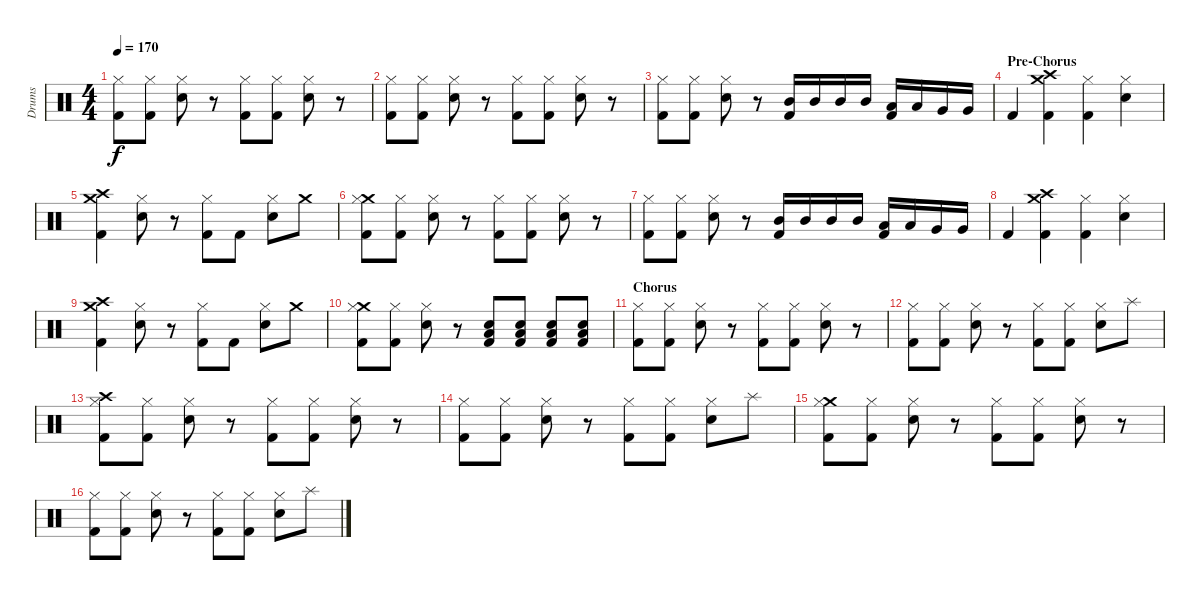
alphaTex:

\track ("Drums" "Drums") {instrument percussion}
\staff {score}
\articulation defaults
\ts (4 4)
\tempo 170
\clef neutral
\ks c
("Hi-Hat (closed)" "Kick (hit) 2").8{dy f} ("Hi-Hat (closed)" "Kick (hit) 2").8 ("Hi-Hat (closed)" "Snare (hit) 2").8 r.8 ("Hi-Hat (closed)" "Kick (hit) 2").8 ("Hi-Hat (closed)" "Kick (hit) 2").8 ("Hi-Hat (closed)" "Snare (hit) 2").8 r.8 |
("Hi-Hat (closed)" "Kick (hit) 2").8 ("Hi-Hat (closed)" "Kick (hit) 2").8 ("Hi-Hat (closed)" "Snare (hit) 2").8 r.8 ("Hi-Hat (closed)" "Kick (hit) 2").8 ("Hi-Hat (closed)" "Kick (hit) 2").8 ("Hi-Hat (closed)" "Snare (hit) 2").8 r.8 |
("Hi-Hat (closed)" "Kick (hit) 2").8 ("Hi-Hat (closed)" "Kick (hit) 2").8 ("Hi-Hat (closed)" "Snare (hit) 2").8 r.8 ("Mid Tom (hit)" "Kick (hit) 2").16 "Mid Tom (hit)".16 "Mid Tom (hit)".16 "Mid Tom (hit)".16 ("Low Tom (hit)" "Kick (hit) 2").16 "Low Tom (hit)".16 "Very Low Tom (hit)".16 "Very Low Tom (hit)".16 |
\section ("" "Pre-Chorus")
"Kick (hit) 2".4 ("Crash medium (hit)" "Crash high (hit)" "Kick (hit) 2").4 ("Hi-Hat (closed)" "Kick (hit) 2").4 ("Hi-Hat (closed)" "Snare (hit) 2").4 |
("Crash medium (hit)" "Crash high (hit)" "Kick (hit) 2").4 ("Hi-Hat (closed)" "Snare (hit) 2").8 r.8 ("Hi-Hat (closed)" "Kick (hit) 2").8 "Kick (hit) 2".8 ("Hi-Hat (closed)" "Snare (hit) 2").8 "Crash medium (hit)".8 |
("Crash medium (hit)" "Hi-Hat (closed)" "Kick (hit) 2").8 ("Hi-Hat (closed)" "Kick (hit) 2").8 ("Hi-Hat (closed)" "Snare (hit) 2").8 r.8 ("Hi-Hat (closed)" "Kick (hit) 2").8 ("Hi-Hat (closed)" "Kick (hit) 2").8 ("Hi-Hat (closed)" "Snare (hit) 2").8 r.8 |
("Hi-Hat (closed)" "Kick (hit) 2").8 ("Hi-Hat (closed)" "Kick (hit) 2").8 ("Hi-Hat (closed)" "Snare (hit) 2").8 r.8 ("Mid Tom (hit)" "Kick (hit) 2").16 "Mid Tom (hit)".16 "Mid Tom (hit)".16 "Mid Tom (hit)".16 ("Low Tom (hit)" "Kick (hit) 2").16 "Low Tom (hit)".16 "Very Low Tom (hit)".16 "Very Low Tom (hit)".16 |
"Kick (hit) 2".4 ("Crash medium (hit)" "Crash high (hit)" "Kick (hit) 2").4 ("Hi-Hat (closed)" "Kick (hit) 2").4 ("Hi-Hat (closed)" "Snare (hit) 2").4 |
("Crash medium (hit)" "Crash high (hit)" "Kick (hit) 2").4 ("Hi-Hat (closed)" "Snare (hit) 2").8 r.8 ("Hi-Hat (closed)" "Kick (hit) 2").8 "Kick (hit) 2".8 ("Hi-Hat (closed)" "Snare (hit) 2").8 "Crash medium (hit)".8 |
("Crash medium (hit)" "Hi-Hat (closed)" "Kick (hit) 2").8 ("Hi-Hat (closed)" "Kick (hit) 2").8 ("Hi-Hat (closed)" "Snare (hit) 2").8 r.8 ("Low Tom (hit)" "Snare (hit) 2" "Kick (hit) 2").8 ("Low Tom (hit)" "Snare (hit) 2" "Kick (hit) 2").8 ("Low Tom (hit)" "Snare (hit) 2" "Kick (hit) 2").8 ("Low Tom (hit)" "Snare (hit) 2" "Kick (hit) 2").8 |
\section ("" "Chorus")
("Hi-Hat (closed)" "Kick (hit) 2").8 ("Hi-Hat (closed)" "Kick (hit) 2").8 ("Hi-Hat (closed)" "Snare (hit) 2").8 r.8 ("Hi-Hat (closed)" "Kick (hit) 2").8 ("Hi-Hat (closed)" "Kick (hit) 2").8 ("Hi-Hat (closed)" "Snare (hit) 2").8 r.8 |
("Hi-Hat (closed)" "Kick (hit) 2").8 ("Hi-Hat (closed)" "Kick (hit) 2").8 ("Hi-Hat (closed)" "Snare (hit) 2").8 r.8 ("Hi-Hat (closed)" "Kick (hit) 2").8 ("Hi-Hat (closed)" "Kick (hit) 2").8 ("Hi-Hat (closed)" "Snare (hit) 2").8 "Splash (hit)".8 |
("Crash high (hit)" "Hi-Hat (closed)" "Kick (hit) 2").8 ("Hi-Hat (closed)" "Kick (hit) 2").8 ("Hi-Hat (closed)" "Snare (hit) 2").8 r.8 ("Hi-Hat (closed)" "Kick (hit) 2").8 ("Hi-Hat (closed)" "Kick (hit) 2").8 ("Hi-Hat (closed)" "Snare (hit) 2").8 r.8 |
("Hi-Hat (closed)" "Kick (hit) 2").8 ("Hi-Hat (closed)" "Kick (hit) 2").8 ("Hi-Hat (closed)" "Snare (hit) 2").8 r.8 ("Hi-Hat (closed)" "Kick (hit) 2").8 ("Hi-Hat (closed)" "Kick (hit) 2").8 ("Hi-Hat (closed)" "Snare (hit) 2").8 "Splash (hit)".8 |
("Crash medium (hit)" "Hi-Hat (closed)" "Kick (hit) 2").8 ("Hi-Hat (closed)" "Kick (hit) 2").8 ("Hi-Hat (closed)" "Snare (hit) 2").8 r.8 ("Hi-Hat (closed)" "Kick (hit) 2").8 ("Hi-Hat (closed)" "Kick (hit) 2").8 ("Hi-Hat (closed)" "Snare (hit) 2").8 r.8 |
("Hi-Hat (closed)" "Kick (hit) 2").8 ("Hi-Hat (closed)" "Kick (hit) 2").8 ("Hi-Hat (closed)" "Snare (hit) 2").8 r.8 ("Hi-Hat (closed)" "Kick (hit) 2").8 ("Hi-Hat (closed)" "Kick (hit) 2").8 ("Hi-Hat (closed)" "Snare (hit) 2").8 "Splash (hit)".8
